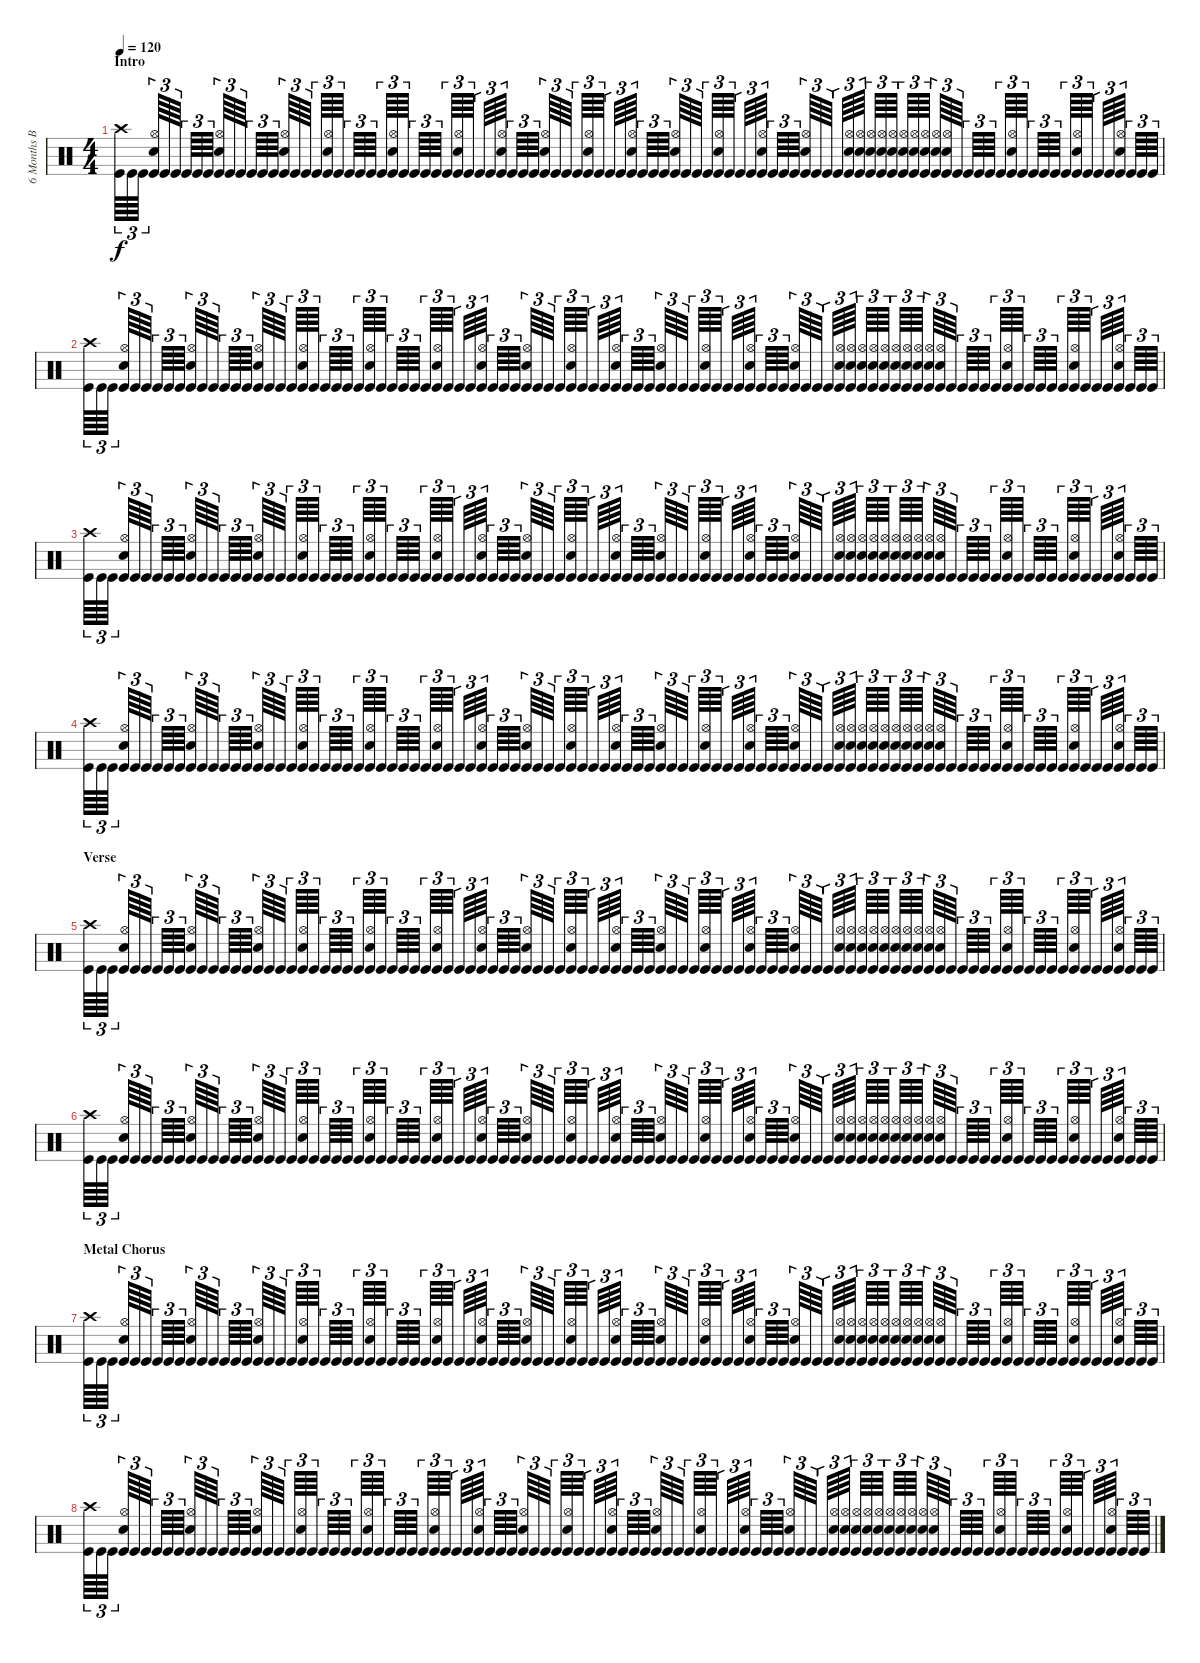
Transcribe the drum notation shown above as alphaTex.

\track ("6 Months Baby" "6 Months B") {instrument percussion}
\staff {score}
\articulation defaults
\ts (4 4)
\section ("" "Intro")
\tempo 120
\clef neutral
\ks c
("Crash high (hit)" "Kick (hit)").64{tu (3 2) dy f} "Kick (hit)".64{tu (3 2)} "Kick (hit)".64{tu (3 2)} ("Hi-Hat (open)" "Snare (hit) 2" "Kick (hit)").64{tu (3 2)} "Kick (hit)".64{tu (3 2)} "Kick (hit)".64{tu (3 2)} "Kick (hit)".64{tu (3 2)} "Kick (hit)".64{tu (3 2)} "Kick (hit)".64{tu (3 2)} ("Hi-Hat (open)" "Snare (hit) 2" "Kick (hit)").64{tu (3 2)} "Kick (hit)".64{tu (3 2)} "Kick (hit)".64{tu (3 2)} "Kick (hit)".64{tu (3 2)} "Kick (hit)".64{tu (3 2)} "Kick (hit)".64{tu (3 2)} ("Hi-Hat (open)" "Snare (hit) 2" "Kick (hit)").64{tu (3 2)} "Kick (hit)".64{tu (3 2)} "Kick (hit)".64{tu (3 2)} "Kick (hit)".64{tu (3 2)} ("Hi-Hat (open)" "Snare (hit) 2" "Kick (hit)").64{tu (3 2)} "Kick (hit)".64{tu (3 2)} "Kick (hit)".64{tu (3 2)} "Kick (hit)".64{tu (3 2)} "Kick (hit)".64{tu (3 2)} "Kick (hit)".64{tu (3 2)} ("Hi-Hat (open)" "Snare (hit) 2" "Kick (hit)").64{tu (3 2)} "Kick (hit)".64{tu (3 2)} "Kick (hit)".64{tu (3 2)} "Kick (hit)".64{tu (3 2)} "Kick (hit)".64{tu (3 2)} "Kick (hit)".64{tu (3 2)} ("Hi-Hat (open)" "Snare (hit) 2" "Kick (hit)").64{tu (3 2)} "Kick (hit)".64{tu (3 2)} "Kick (hit)".64{tu (3 2)} "Kick (hit)".64{tu (3 2)} ("Hi-Hat (open)" "Snare (hit) 2" "Kick (hit)").64{tu (3 2)} "Kick (hit)".64{tu (3 2)} "Kick (hit)".64{tu (3 2)} "Kick (hit)".64{tu (3 2)} ("Hi-Hat (open)" "Snare (hit) 2" "Kick (hit)").64{tu (3 2)} "Kick (hit)".64{tu (3 2)} "Kick (hit)".64{tu (3 2)} "Kick (hit)".64{tu (3 2)} ("Hi-Hat (open)" "Snare (hit) 2" "Kick (hit)").64{tu (3 2)} "Kick (hit)".64{tu (3 2)} "Kick (hit)".64{tu (3 2)} "Kick (hit)".64{tu (3 2)} ("Hi-Hat (open)" "Snare (hit) 2" "Kick (hit)").64{tu (3 2)} "Kick (hit)".64{tu (3 2)} "Kick (hit)".64{tu (3 2)} "Kick (hit)".64{tu (3 2)} ("Hi-Hat (open)" "Snare (hit) 2" "Kick (hit)").64{tu (3 2)} "Kick (hit)".64{tu (3 2)} "Kick (hit)".64{tu (3 2)} "Kick (hit)".64{tu (3 2)} ("Hi-Hat (open)" "Snare (hit) 2" "Kick (hit)").64{tu (3 2)} "Kick (hit)".64{tu (3 2)} "Kick (hit)".64{tu (3 2)} "Kick (hit)".64{tu (3 2)} ("Hi-Hat (open)" "Snare (hit) 2" "Kick (hit)").64{tu (3 2)} "Kick (hit)".64{tu (3 2)} "Kick (hit)".64{tu (3 2)} "Kick (hit)".64{tu (3 2)} ("Hi-Hat (open)" "Snare (hit) 2" "Kick (hit)").64{tu (3 2)} "Kick (hit)".64{tu (3 2)} "Kick (hit)".64{tu (3 2)} "Kick (hit)".64{tu (3 2)} ("Hi-Hat (open)" "Snare (hit) 2" "Kick (hit)").64{tu (3 2)} ("Hi-Hat (open)" "Snare (hit) 2" "Kick (hit)").64{tu (3 2)} ("Hi-Hat (open)" "Snare (hit) 2" "Kick (hit)").64{tu (3 2)} ("Hi-Hat (open)" "Snare (hit) 2" "Kick (hit)").64{tu (3 2)} ("Hi-Hat (open)" "Snare (hit) 2" "Kick (hit)").64{tu (3 2)} ("Hi-Hat (open)" "Snare (hit) 2" "Kick (hit)").64{tu (3 2)} ("Hi-Hat (open)" "Snare (hit) 2" "Kick (hit)").64{tu (3 2)} ("Hi-Hat (open)" "Snare (hit) 2" "Kick (hit)").64{tu (3 2)} ("Hi-Hat (open)" "Snare (hit) 2" "Kick (hit)").64{tu (3 2)} ("Hi-Hat (open)" "Snare (hit) 2" "Kick (hit)").64{tu (3 2)} "Kick (hit)".64{tu (3 2)} "Kick (hit)".64{tu (3 2)} "Kick (hit)".64{tu (3 2)} "Kick (hit)".64{tu (3 2)} "Kick (hit)".64{tu (3 2)} ("Hi-Hat (open)" "Snare (hit) 2" "Kick (hit)").64{tu (3 2)} "Kick (hit)".64{tu (3 2)} "Kick (hit)".64{tu (3 2)} "Kick (hit)".64{tu (3 2)} "Kick (hit)".64{tu (3 2)} "Kick (hit)".64{tu (3 2)} ("Hi-Hat (open)" "Snare (hit) 2" "Kick (hit)").64{tu (3 2)} "Kick (hit)".64{tu (3 2)} "Kick (hit)".64{tu (3 2)} "Kick (hit)".64{tu (3 2)} ("Hi-Hat (open)" "Snare (hit) 2" "Kick (hit)").64{tu (3 2)} "Kick (hit)".64{tu (3 2)} "Kick (hit)".64{tu (3 2)} "Kick (hit)".64{tu (3 2)} |
("Crash high (hit)" "Kick (hit)").64{tu (3 2)} "Kick (hit)".64{tu (3 2)} "Kick (hit)".64{tu (3 2)} ("Hi-Hat (open)" "Snare (hit) 2" "Kick (hit)").64{tu (3 2)} "Kick (hit)".64{tu (3 2)} "Kick (hit)".64{tu (3 2)} "Kick (hit)".64{tu (3 2)} "Kick (hit)".64{tu (3 2)} "Kick (hit)".64{tu (3 2)} ("Hi-Hat (open)" "Snare (hit) 2" "Kick (hit)").64{tu (3 2)} "Kick (hit)".64{tu (3 2)} "Kick (hit)".64{tu (3 2)} "Kick (hit)".64{tu (3 2)} "Kick (hit)".64{tu (3 2)} "Kick (hit)".64{tu (3 2)} ("Hi-Hat (open)" "Snare (hit) 2" "Kick (hit)").64{tu (3 2)} "Kick (hit)".64{tu (3 2)} "Kick (hit)".64{tu (3 2)} "Kick (hit)".64{tu (3 2)} ("Hi-Hat (open)" "Snare (hit) 2" "Kick (hit)").64{tu (3 2)} "Kick (hit)".64{tu (3 2)} "Kick (hit)".64{tu (3 2)} "Kick (hit)".64{tu (3 2)} "Kick (hit)".64{tu (3 2)} "Kick (hit)".64{tu (3 2)} ("Hi-Hat (open)" "Snare (hit) 2" "Kick (hit)").64{tu (3 2)} "Kick (hit)".64{tu (3 2)} "Kick (hit)".64{tu (3 2)} "Kick (hit)".64{tu (3 2)} "Kick (hit)".64{tu (3 2)} "Kick (hit)".64{tu (3 2)} ("Hi-Hat (open)" "Snare (hit) 2" "Kick (hit)").64{tu (3 2)} "Kick (hit)".64{tu (3 2)} "Kick (hit)".64{tu (3 2)} "Kick (hit)".64{tu (3 2)} ("Hi-Hat (open)" "Snare (hit) 2" "Kick (hit)").64{tu (3 2)} "Kick (hit)".64{tu (3 2)} "Kick (hit)".64{tu (3 2)} "Kick (hit)".64{tu (3 2)} ("Hi-Hat (open)" "Snare (hit) 2" "Kick (hit)").64{tu (3 2)} "Kick (hit)".64{tu (3 2)} "Kick (hit)".64{tu (3 2)} "Kick (hit)".64{tu (3 2)} ("Hi-Hat (open)" "Snare (hit) 2" "Kick (hit)").64{tu (3 2)} "Kick (hit)".64{tu (3 2)} "Kick (hit)".64{tu (3 2)} "Kick (hit)".64{tu (3 2)} ("Hi-Hat (open)" "Snare (hit) 2" "Kick (hit)").64{tu (3 2)} "Kick (hit)".64{tu (3 2)} "Kick (hit)".64{tu (3 2)} "Kick (hit)".64{tu (3 2)} ("Hi-Hat (open)" "Snare (hit) 2" "Kick (hit)").64{tu (3 2)} "Kick (hit)".64{tu (3 2)} "Kick (hit)".64{tu (3 2)} "Kick (hit)".64{tu (3 2)} ("Hi-Hat (open)" "Snare (hit) 2" "Kick (hit)").64{tu (3 2)} "Kick (hit)".64{tu (3 2)} "Kick (hit)".64{tu (3 2)} "Kick (hit)".64{tu (3 2)} ("Hi-Hat (open)" "Snare (hit) 2" "Kick (hit)").64{tu (3 2)} "Kick (hit)".64{tu (3 2)} "Kick (hit)".64{tu (3 2)} "Kick (hit)".64{tu (3 2)} ("Hi-Hat (open)" "Snare (hit) 2" "Kick (hit)").64{tu (3 2)} "Kick (hit)".64{tu (3 2)} "Kick (hit)".64{tu (3 2)} "Kick (hit)".64{tu (3 2)} ("Hi-Hat (open)" "Snare (hit) 2" "Kick (hit)").64{tu (3 2)} ("Hi-Hat (open)" "Snare (hit) 2" "Kick (hit)").64{tu (3 2)} ("Hi-Hat (open)" "Snare (hit) 2" "Kick (hit)").64{tu (3 2)} ("Hi-Hat (open)" "Snare (hit) 2" "Kick (hit)").64{tu (3 2)} ("Hi-Hat (open)" "Snare (hit) 2" "Kick (hit)").64{tu (3 2)} ("Hi-Hat (open)" "Snare (hit) 2" "Kick (hit)").64{tu (3 2)} ("Hi-Hat (open)" "Snare (hit) 2" "Kick (hit)").64{tu (3 2)} ("Hi-Hat (open)" "Snare (hit) 2" "Kick (hit)").64{tu (3 2)} ("Hi-Hat (open)" "Snare (hit) 2" "Kick (hit)").64{tu (3 2)} ("Hi-Hat (open)" "Snare (hit) 2" "Kick (hit)").64{tu (3 2)} "Kick (hit)".64{tu (3 2)} "Kick (hit)".64{tu (3 2)} "Kick (hit)".64{tu (3 2)} "Kick (hit)".64{tu (3 2)} "Kick (hit)".64{tu (3 2)} ("Hi-Hat (open)" "Snare (hit) 2" "Kick (hit)").64{tu (3 2)} "Kick (hit)".64{tu (3 2)} "Kick (hit)".64{tu (3 2)} "Kick (hit)".64{tu (3 2)} "Kick (hit)".64{tu (3 2)} "Kick (hit)".64{tu (3 2)} ("Hi-Hat (open)" "Snare (hit) 2" "Kick (hit)").64{tu (3 2)} "Kick (hit)".64{tu (3 2)} "Kick (hit)".64{tu (3 2)} "Kick (hit)".64{tu (3 2)} ("Hi-Hat (open)" "Snare (hit) 2" "Kick (hit)").64{tu (3 2)} "Kick (hit)".64{tu (3 2)} "Kick (hit)".64{tu (3 2)} "Kick (hit)".64{tu (3 2)} |
("Crash high (hit)" "Kick (hit)").64{tu (3 2)} "Kick (hit)".64{tu (3 2)} "Kick (hit)".64{tu (3 2)} ("Hi-Hat (open)" "Snare (hit) 2" "Kick (hit)").64{tu (3 2)} "Kick (hit)".64{tu (3 2)} "Kick (hit)".64{tu (3 2)} "Kick (hit)".64{tu (3 2)} "Kick (hit)".64{tu (3 2)} "Kick (hit)".64{tu (3 2)} ("Hi-Hat (open)" "Snare (hit) 2" "Kick (hit)").64{tu (3 2)} "Kick (hit)".64{tu (3 2)} "Kick (hit)".64{tu (3 2)} "Kick (hit)".64{tu (3 2)} "Kick (hit)".64{tu (3 2)} "Kick (hit)".64{tu (3 2)} ("Hi-Hat (open)" "Snare (hit) 2" "Kick (hit)").64{tu (3 2)} "Kick (hit)".64{tu (3 2)} "Kick (hit)".64{tu (3 2)} "Kick (hit)".64{tu (3 2)} ("Hi-Hat (open)" "Snare (hit) 2" "Kick (hit)").64{tu (3 2)} "Kick (hit)".64{tu (3 2)} "Kick (hit)".64{tu (3 2)} "Kick (hit)".64{tu (3 2)} "Kick (hit)".64{tu (3 2)} "Kick (hit)".64{tu (3 2)} ("Hi-Hat (open)" "Snare (hit) 2" "Kick (hit)").64{tu (3 2)} "Kick (hit)".64{tu (3 2)} "Kick (hit)".64{tu (3 2)} "Kick (hit)".64{tu (3 2)} "Kick (hit)".64{tu (3 2)} "Kick (hit)".64{tu (3 2)} ("Hi-Hat (open)" "Snare (hit) 2" "Kick (hit)").64{tu (3 2)} "Kick (hit)".64{tu (3 2)} "Kick (hit)".64{tu (3 2)} "Kick (hit)".64{tu (3 2)} ("Hi-Hat (open)" "Snare (hit) 2" "Kick (hit)").64{tu (3 2)} "Kick (hit)".64{tu (3 2)} "Kick (hit)".64{tu (3 2)} "Kick (hit)".64{tu (3 2)} ("Hi-Hat (open)" "Snare (hit) 2" "Kick (hit)").64{tu (3 2)} "Kick (hit)".64{tu (3 2)} "Kick (hit)".64{tu (3 2)} "Kick (hit)".64{tu (3 2)} ("Hi-Hat (open)" "Snare (hit) 2" "Kick (hit)").64{tu (3 2)} "Kick (hit)".64{tu (3 2)} "Kick (hit)".64{tu (3 2)} "Kick (hit)".64{tu (3 2)} ("Hi-Hat (open)" "Snare (hit) 2" "Kick (hit)").64{tu (3 2)} "Kick (hit)".64{tu (3 2)} "Kick (hit)".64{tu (3 2)} "Kick (hit)".64{tu (3 2)} ("Hi-Hat (open)" "Snare (hit) 2" "Kick (hit)").64{tu (3 2)} "Kick (hit)".64{tu (3 2)} "Kick (hit)".64{tu (3 2)} "Kick (hit)".64{tu (3 2)} ("Hi-Hat (open)" "Snare (hit) 2" "Kick (hit)").64{tu (3 2)} "Kick (hit)".64{tu (3 2)} "Kick (hit)".64{tu (3 2)} "Kick (hit)".64{tu (3 2)} ("Hi-Hat (open)" "Snare (hit) 2" "Kick (hit)").64{tu (3 2)} "Kick (hit)".64{tu (3 2)} "Kick (hit)".64{tu (3 2)} "Kick (hit)".64{tu (3 2)} ("Hi-Hat (open)" "Snare (hit) 2" "Kick (hit)").64{tu (3 2)} "Kick (hit)".64{tu (3 2)} "Kick (hit)".64{tu (3 2)} "Kick (hit)".64{tu (3 2)} ("Hi-Hat (open)" "Snare (hit) 2" "Kick (hit)").64{tu (3 2)} ("Hi-Hat (open)" "Snare (hit) 2" "Kick (hit)").64{tu (3 2)} ("Hi-Hat (open)" "Snare (hit) 2" "Kick (hit)").64{tu (3 2)} ("Hi-Hat (open)" "Snare (hit) 2" "Kick (hit)").64{tu (3 2)} ("Hi-Hat (open)" "Snare (hit) 2" "Kick (hit)").64{tu (3 2)} ("Hi-Hat (open)" "Snare (hit) 2" "Kick (hit)").64{tu (3 2)} ("Hi-Hat (open)" "Snare (hit) 2" "Kick (hit)").64{tu (3 2)} ("Hi-Hat (open)" "Snare (hit) 2" "Kick (hit)").64{tu (3 2)} ("Hi-Hat (open)" "Snare (hit) 2" "Kick (hit)").64{tu (3 2)} ("Hi-Hat (open)" "Snare (hit) 2" "Kick (hit)").64{tu (3 2)} "Kick (hit)".64{tu (3 2)} "Kick (hit)".64{tu (3 2)} "Kick (hit)".64{tu (3 2)} "Kick (hit)".64{tu (3 2)} "Kick (hit)".64{tu (3 2)} ("Hi-Hat (open)" "Snare (hit) 2" "Kick (hit)").64{tu (3 2)} "Kick (hit)".64{tu (3 2)} "Kick (hit)".64{tu (3 2)} "Kick (hit)".64{tu (3 2)} "Kick (hit)".64{tu (3 2)} "Kick (hit)".64{tu (3 2)} ("Hi-Hat (open)" "Snare (hit) 2" "Kick (hit)").64{tu (3 2)} "Kick (hit)".64{tu (3 2)} "Kick (hit)".64{tu (3 2)} "Kick (hit)".64{tu (3 2)} ("Hi-Hat (open)" "Snare (hit) 2" "Kick (hit)").64{tu (3 2)} "Kick (hit)".64{tu (3 2)} "Kick (hit)".64{tu (3 2)} "Kick (hit)".64{tu (3 2)} |
("Crash high (hit)" "Kick (hit)").64{tu (3 2)} "Kick (hit)".64{tu (3 2)} "Kick (hit)".64{tu (3 2)} ("Hi-Hat (open)" "Snare (hit) 2" "Kick (hit)").64{tu (3 2)} "Kick (hit)".64{tu (3 2)} "Kick (hit)".64{tu (3 2)} "Kick (hit)".64{tu (3 2)} "Kick (hit)".64{tu (3 2)} "Kick (hit)".64{tu (3 2)} ("Hi-Hat (open)" "Snare (hit) 2" "Kick (hit)").64{tu (3 2)} "Kick (hit)".64{tu (3 2)} "Kick (hit)".64{tu (3 2)} "Kick (hit)".64{tu (3 2)} "Kick (hit)".64{tu (3 2)} "Kick (hit)".64{tu (3 2)} ("Hi-Hat (open)" "Snare (hit) 2" "Kick (hit)").64{tu (3 2)} "Kick (hit)".64{tu (3 2)} "Kick (hit)".64{tu (3 2)} "Kick (hit)".64{tu (3 2)} ("Hi-Hat (open)" "Snare (hit) 2" "Kick (hit)").64{tu (3 2)} "Kick (hit)".64{tu (3 2)} "Kick (hit)".64{tu (3 2)} "Kick (hit)".64{tu (3 2)} "Kick (hit)".64{tu (3 2)} "Kick (hit)".64{tu (3 2)} ("Hi-Hat (open)" "Snare (hit) 2" "Kick (hit)").64{tu (3 2)} "Kick (hit)".64{tu (3 2)} "Kick (hit)".64{tu (3 2)} "Kick (hit)".64{tu (3 2)} "Kick (hit)".64{tu (3 2)} "Kick (hit)".64{tu (3 2)} ("Hi-Hat (open)" "Snare (hit) 2" "Kick (hit)").64{tu (3 2)} "Kick (hit)".64{tu (3 2)} "Kick (hit)".64{tu (3 2)} "Kick (hit)".64{tu (3 2)} ("Hi-Hat (open)" "Snare (hit) 2" "Kick (hit)").64{tu (3 2)} "Kick (hit)".64{tu (3 2)} "Kick (hit)".64{tu (3 2)} "Kick (hit)".64{tu (3 2)} ("Hi-Hat (open)" "Snare (hit) 2" "Kick (hit)").64{tu (3 2)} "Kick (hit)".64{tu (3 2)} "Kick (hit)".64{tu (3 2)} "Kick (hit)".64{tu (3 2)} ("Hi-Hat (open)" "Snare (hit) 2" "Kick (hit)").64{tu (3 2)} "Kick (hit)".64{tu (3 2)} "Kick (hit)".64{tu (3 2)} "Kick (hit)".64{tu (3 2)} ("Hi-Hat (open)" "Snare (hit) 2" "Kick (hit)").64{tu (3 2)} "Kick (hit)".64{tu (3 2)} "Kick (hit)".64{tu (3 2)} "Kick (hit)".64{tu (3 2)} ("Hi-Hat (open)" "Snare (hit) 2" "Kick (hit)").64{tu (3 2)} "Kick (hit)".64{tu (3 2)} "Kick (hit)".64{tu (3 2)} "Kick (hit)".64{tu (3 2)} ("Hi-Hat (open)" "Snare (hit) 2" "Kick (hit)").64{tu (3 2)} "Kick (hit)".64{tu (3 2)} "Kick (hit)".64{tu (3 2)} "Kick (hit)".64{tu (3 2)} ("Hi-Hat (open)" "Snare (hit) 2" "Kick (hit)").64{tu (3 2)} "Kick (hit)".64{tu (3 2)} "Kick (hit)".64{tu (3 2)} "Kick (hit)".64{tu (3 2)} ("Hi-Hat (open)" "Snare (hit) 2" "Kick (hit)").64{tu (3 2)} "Kick (hit)".64{tu (3 2)} "Kick (hit)".64{tu (3 2)} "Kick (hit)".64{tu (3 2)} ("Hi-Hat (open)" "Snare (hit) 2" "Kick (hit)").64{tu (3 2)} ("Hi-Hat (open)" "Snare (hit) 2" "Kick (hit)").64{tu (3 2)} ("Hi-Hat (open)" "Snare (hit) 2" "Kick (hit)").64{tu (3 2)} ("Hi-Hat (open)" "Snare (hit) 2" "Kick (hit)").64{tu (3 2)} ("Hi-Hat (open)" "Snare (hit) 2" "Kick (hit)").64{tu (3 2)} ("Hi-Hat (open)" "Snare (hit) 2" "Kick (hit)").64{tu (3 2)} ("Hi-Hat (open)" "Snare (hit) 2" "Kick (hit)").64{tu (3 2)} ("Hi-Hat (open)" "Snare (hit) 2" "Kick (hit)").64{tu (3 2)} ("Hi-Hat (open)" "Snare (hit) 2" "Kick (hit)").64{tu (3 2)} ("Hi-Hat (open)" "Snare (hit) 2" "Kick (hit)").64{tu (3 2)} "Kick (hit)".64{tu (3 2)} "Kick (hit)".64{tu (3 2)} "Kick (hit)".64{tu (3 2)} "Kick (hit)".64{tu (3 2)} "Kick (hit)".64{tu (3 2)} ("Hi-Hat (open)" "Snare (hit) 2" "Kick (hit)").64{tu (3 2)} "Kick (hit)".64{tu (3 2)} "Kick (hit)".64{tu (3 2)} "Kick (hit)".64{tu (3 2)} "Kick (hit)".64{tu (3 2)} "Kick (hit)".64{tu (3 2)} ("Hi-Hat (open)" "Snare (hit) 2" "Kick (hit)").64{tu (3 2)} "Kick (hit)".64{tu (3 2)} "Kick (hit)".64{tu (3 2)} "Kick (hit)".64{tu (3 2)} ("Hi-Hat (open)" "Snare (hit) 2" "Kick (hit)").64{tu (3 2)} "Kick (hit)".64{tu (3 2)} "Kick (hit)".64{tu (3 2)} "Kick (hit)".64{tu (3 2)} |
\section ("" "Verse")
("Crash high (hit)" "Kick (hit)").64{tu (3 2)} "Kick (hit)".64{tu (3 2)} "Kick (hit)".64{tu (3 2)} ("Hi-Hat (open)" "Snare (hit) 2" "Kick (hit)").64{tu (3 2)} "Kick (hit)".64{tu (3 2)} "Kick (hit)".64{tu (3 2)} "Kick (hit)".64{tu (3 2)} "Kick (hit)".64{tu (3 2)} "Kick (hit)".64{tu (3 2)} ("Hi-Hat (open)" "Snare (hit) 2" "Kick (hit)").64{tu (3 2)} "Kick (hit)".64{tu (3 2)} "Kick (hit)".64{tu (3 2)} "Kick (hit)".64{tu (3 2)} "Kick (hit)".64{tu (3 2)} "Kick (hit)".64{tu (3 2)} ("Hi-Hat (open)" "Snare (hit) 2" "Kick (hit)").64{tu (3 2)} "Kick (hit)".64{tu (3 2)} "Kick (hit)".64{tu (3 2)} "Kick (hit)".64{tu (3 2)} ("Hi-Hat (open)" "Snare (hit) 2" "Kick (hit)").64{tu (3 2)} "Kick (hit)".64{tu (3 2)} "Kick (hit)".64{tu (3 2)} "Kick (hit)".64{tu (3 2)} "Kick (hit)".64{tu (3 2)} "Kick (hit)".64{tu (3 2)} ("Hi-Hat (open)" "Snare (hit) 2" "Kick (hit)").64{tu (3 2)} "Kick (hit)".64{tu (3 2)} "Kick (hit)".64{tu (3 2)} "Kick (hit)".64{tu (3 2)} "Kick (hit)".64{tu (3 2)} "Kick (hit)".64{tu (3 2)} ("Hi-Hat (open)" "Snare (hit) 2" "Kick (hit)").64{tu (3 2)} "Kick (hit)".64{tu (3 2)} "Kick (hit)".64{tu (3 2)} "Kick (hit)".64{tu (3 2)} ("Hi-Hat (open)" "Snare (hit) 2" "Kick (hit)").64{tu (3 2)} "Kick (hit)".64{tu (3 2)} "Kick (hit)".64{tu (3 2)} "Kick (hit)".64{tu (3 2)} ("Hi-Hat (open)" "Snare (hit) 2" "Kick (hit)").64{tu (3 2)} "Kick (hit)".64{tu (3 2)} "Kick (hit)".64{tu (3 2)} "Kick (hit)".64{tu (3 2)} ("Hi-Hat (open)" "Snare (hit) 2" "Kick (hit)").64{tu (3 2)} "Kick (hit)".64{tu (3 2)} "Kick (hit)".64{tu (3 2)} "Kick (hit)".64{tu (3 2)} ("Hi-Hat (open)" "Snare (hit) 2" "Kick (hit)").64{tu (3 2)} "Kick (hit)".64{tu (3 2)} "Kick (hit)".64{tu (3 2)} "Kick (hit)".64{tu (3 2)} ("Hi-Hat (open)" "Snare (hit) 2" "Kick (hit)").64{tu (3 2)} "Kick (hit)".64{tu (3 2)} "Kick (hit)".64{tu (3 2)} "Kick (hit)".64{tu (3 2)} ("Hi-Hat (open)" "Snare (hit) 2" "Kick (hit)").64{tu (3 2)} "Kick (hit)".64{tu (3 2)} "Kick (hit)".64{tu (3 2)} "Kick (hit)".64{tu (3 2)} ("Hi-Hat (open)" "Snare (hit) 2" "Kick (hit)").64{tu (3 2)} "Kick (hit)".64{tu (3 2)} "Kick (hit)".64{tu (3 2)} "Kick (hit)".64{tu (3 2)} ("Hi-Hat (open)" "Snare (hit) 2" "Kick (hit)").64{tu (3 2)} "Kick (hit)".64{tu (3 2)} "Kick (hit)".64{tu (3 2)} "Kick (hit)".64{tu (3 2)} ("Hi-Hat (open)" "Snare (hit) 2" "Kick (hit)").64{tu (3 2)} ("Hi-Hat (open)" "Snare (hit) 2" "Kick (hit)").64{tu (3 2)} ("Hi-Hat (open)" "Snare (hit) 2" "Kick (hit)").64{tu (3 2)} ("Hi-Hat (open)" "Snare (hit) 2" "Kick (hit)").64{tu (3 2)} ("Hi-Hat (open)" "Snare (hit) 2" "Kick (hit)").64{tu (3 2)} ("Hi-Hat (open)" "Snare (hit) 2" "Kick (hit)").64{tu (3 2)} ("Hi-Hat (open)" "Snare (hit) 2" "Kick (hit)").64{tu (3 2)} ("Hi-Hat (open)" "Snare (hit) 2" "Kick (hit)").64{tu (3 2)} ("Hi-Hat (open)" "Snare (hit) 2" "Kick (hit)").64{tu (3 2)} ("Hi-Hat (open)" "Snare (hit) 2" "Kick (hit)").64{tu (3 2)} "Kick (hit)".64{tu (3 2)} "Kick (hit)".64{tu (3 2)} "Kick (hit)".64{tu (3 2)} "Kick (hit)".64{tu (3 2)} "Kick (hit)".64{tu (3 2)} ("Hi-Hat (open)" "Snare (hit) 2" "Kick (hit)").64{tu (3 2)} "Kick (hit)".64{tu (3 2)} "Kick (hit)".64{tu (3 2)} "Kick (hit)".64{tu (3 2)} "Kick (hit)".64{tu (3 2)} "Kick (hit)".64{tu (3 2)} ("Hi-Hat (open)" "Snare (hit) 2" "Kick (hit)").64{tu (3 2)} "Kick (hit)".64{tu (3 2)} "Kick (hit)".64{tu (3 2)} "Kick (hit)".64{tu (3 2)} ("Hi-Hat (open)" "Snare (hit) 2" "Kick (hit)").64{tu (3 2)} "Kick (hit)".64{tu (3 2)} "Kick (hit)".64{tu (3 2)} "Kick (hit)".64{tu (3 2)} |
("Crash high (hit)" "Kick (hit)").64{tu (3 2)} "Kick (hit)".64{tu (3 2)} "Kick (hit)".64{tu (3 2)} ("Hi-Hat (open)" "Snare (hit) 2" "Kick (hit)").64{tu (3 2)} "Kick (hit)".64{tu (3 2)} "Kick (hit)".64{tu (3 2)} "Kick (hit)".64{tu (3 2)} "Kick (hit)".64{tu (3 2)} "Kick (hit)".64{tu (3 2)} ("Hi-Hat (open)" "Snare (hit) 2" "Kick (hit)").64{tu (3 2)} "Kick (hit)".64{tu (3 2)} "Kick (hit)".64{tu (3 2)} "Kick (hit)".64{tu (3 2)} "Kick (hit)".64{tu (3 2)} "Kick (hit)".64{tu (3 2)} ("Hi-Hat (open)" "Snare (hit) 2" "Kick (hit)").64{tu (3 2)} "Kick (hit)".64{tu (3 2)} "Kick (hit)".64{tu (3 2)} "Kick (hit)".64{tu (3 2)} ("Hi-Hat (open)" "Snare (hit) 2" "Kick (hit)").64{tu (3 2)} "Kick (hit)".64{tu (3 2)} "Kick (hit)".64{tu (3 2)} "Kick (hit)".64{tu (3 2)} "Kick (hit)".64{tu (3 2)} "Kick (hit)".64{tu (3 2)} ("Hi-Hat (open)" "Snare (hit) 2" "Kick (hit)").64{tu (3 2)} "Kick (hit)".64{tu (3 2)} "Kick (hit)".64{tu (3 2)} "Kick (hit)".64{tu (3 2)} "Kick (hit)".64{tu (3 2)} "Kick (hit)".64{tu (3 2)} ("Hi-Hat (open)" "Snare (hit) 2" "Kick (hit)").64{tu (3 2)} "Kick (hit)".64{tu (3 2)} "Kick (hit)".64{tu (3 2)} "Kick (hit)".64{tu (3 2)} ("Hi-Hat (open)" "Snare (hit) 2" "Kick (hit)").64{tu (3 2)} "Kick (hit)".64{tu (3 2)} "Kick (hit)".64{tu (3 2)} "Kick (hit)".64{tu (3 2)} ("Hi-Hat (open)" "Snare (hit) 2" "Kick (hit)").64{tu (3 2)} "Kick (hit)".64{tu (3 2)} "Kick (hit)".64{tu (3 2)} "Kick (hit)".64{tu (3 2)} ("Hi-Hat (open)" "Snare (hit) 2" "Kick (hit)").64{tu (3 2)} "Kick (hit)".64{tu (3 2)} "Kick (hit)".64{tu (3 2)} "Kick (hit)".64{tu (3 2)} ("Hi-Hat (open)" "Snare (hit) 2" "Kick (hit)").64{tu (3 2)} "Kick (hit)".64{tu (3 2)} "Kick (hit)".64{tu (3 2)} "Kick (hit)".64{tu (3 2)} ("Hi-Hat (open)" "Snare (hit) 2" "Kick (hit)").64{tu (3 2)} "Kick (hit)".64{tu (3 2)} "Kick (hit)".64{tu (3 2)} "Kick (hit)".64{tu (3 2)} ("Hi-Hat (open)" "Snare (hit) 2" "Kick (hit)").64{tu (3 2)} "Kick (hit)".64{tu (3 2)} "Kick (hit)".64{tu (3 2)} "Kick (hit)".64{tu (3 2)} ("Hi-Hat (open)" "Snare (hit) 2" "Kick (hit)").64{tu (3 2)} "Kick (hit)".64{tu (3 2)} "Kick (hit)".64{tu (3 2)} "Kick (hit)".64{tu (3 2)} ("Hi-Hat (open)" "Snare (hit) 2" "Kick (hit)").64{tu (3 2)} "Kick (hit)".64{tu (3 2)} "Kick (hit)".64{tu (3 2)} "Kick (hit)".64{tu (3 2)} ("Hi-Hat (open)" "Snare (hit) 2" "Kick (hit)").64{tu (3 2)} ("Hi-Hat (open)" "Snare (hit) 2" "Kick (hit)").64{tu (3 2)} ("Hi-Hat (open)" "Snare (hit) 2" "Kick (hit)").64{tu (3 2)} ("Hi-Hat (open)" "Snare (hit) 2" "Kick (hit)").64{tu (3 2)} ("Hi-Hat (open)" "Snare (hit) 2" "Kick (hit)").64{tu (3 2)} ("Hi-Hat (open)" "Snare (hit) 2" "Kick (hit)").64{tu (3 2)} ("Hi-Hat (open)" "Snare (hit) 2" "Kick (hit)").64{tu (3 2)} ("Hi-Hat (open)" "Snare (hit) 2" "Kick (hit)").64{tu (3 2)} ("Hi-Hat (open)" "Snare (hit) 2" "Kick (hit)").64{tu (3 2)} ("Hi-Hat (open)" "Snare (hit) 2" "Kick (hit)").64{tu (3 2)} "Kick (hit)".64{tu (3 2)} "Kick (hit)".64{tu (3 2)} "Kick (hit)".64{tu (3 2)} "Kick (hit)".64{tu (3 2)} "Kick (hit)".64{tu (3 2)} ("Hi-Hat (open)" "Snare (hit) 2" "Kick (hit)").64{tu (3 2)} "Kick (hit)".64{tu (3 2)} "Kick (hit)".64{tu (3 2)} "Kick (hit)".64{tu (3 2)} "Kick (hit)".64{tu (3 2)} "Kick (hit)".64{tu (3 2)} ("Hi-Hat (open)" "Snare (hit) 2" "Kick (hit)").64{tu (3 2)} "Kick (hit)".64{tu (3 2)} "Kick (hit)".64{tu (3 2)} "Kick (hit)".64{tu (3 2)} ("Hi-Hat (open)" "Snare (hit) 2" "Kick (hit)").64{tu (3 2)} "Kick (hit)".64{tu (3 2)} "Kick (hit)".64{tu (3 2)} "Kick (hit)".64{tu (3 2)} |
\section ("" "Metal Chorus")
("Crash high (hit)" "Kick (hit)").64{tu (3 2)} "Kick (hit)".64{tu (3 2)} "Kick (hit)".64{tu (3 2)} ("Hi-Hat (open)" "Snare (hit) 2" "Kick (hit)").64{tu (3 2)} "Kick (hit)".64{tu (3 2)} "Kick (hit)".64{tu (3 2)} "Kick (hit)".64{tu (3 2)} "Kick (hit)".64{tu (3 2)} "Kick (hit)".64{tu (3 2)} ("Hi-Hat (open)" "Snare (hit) 2" "Kick (hit)").64{tu (3 2)} "Kick (hit)".64{tu (3 2)} "Kick (hit)".64{tu (3 2)} "Kick (hit)".64{tu (3 2)} "Kick (hit)".64{tu (3 2)} "Kick (hit)".64{tu (3 2)} ("Hi-Hat (open)" "Snare (hit) 2" "Kick (hit)").64{tu (3 2)} "Kick (hit)".64{tu (3 2)} "Kick (hit)".64{tu (3 2)} "Kick (hit)".64{tu (3 2)} ("Hi-Hat (open)" "Snare (hit) 2" "Kick (hit)").64{tu (3 2)} "Kick (hit)".64{tu (3 2)} "Kick (hit)".64{tu (3 2)} "Kick (hit)".64{tu (3 2)} "Kick (hit)".64{tu (3 2)} "Kick (hit)".64{tu (3 2)} ("Hi-Hat (open)" "Snare (hit) 2" "Kick (hit)").64{tu (3 2)} "Kick (hit)".64{tu (3 2)} "Kick (hit)".64{tu (3 2)} "Kick (hit)".64{tu (3 2)} "Kick (hit)".64{tu (3 2)} "Kick (hit)".64{tu (3 2)} ("Hi-Hat (open)" "Snare (hit) 2" "Kick (hit)").64{tu (3 2)} "Kick (hit)".64{tu (3 2)} "Kick (hit)".64{tu (3 2)} "Kick (hit)".64{tu (3 2)} ("Hi-Hat (open)" "Snare (hit) 2" "Kick (hit)").64{tu (3 2)} "Kick (hit)".64{tu (3 2)} "Kick (hit)".64{tu (3 2)} "Kick (hit)".64{tu (3 2)} ("Hi-Hat (open)" "Snare (hit) 2" "Kick (hit)").64{tu (3 2)} "Kick (hit)".64{tu (3 2)} "Kick (hit)".64{tu (3 2)} "Kick (hit)".64{tu (3 2)} ("Hi-Hat (open)" "Snare (hit) 2" "Kick (hit)").64{tu (3 2)} "Kick (hit)".64{tu (3 2)} "Kick (hit)".64{tu (3 2)} "Kick (hit)".64{tu (3 2)} ("Hi-Hat (open)" "Snare (hit) 2" "Kick (hit)").64{tu (3 2)} "Kick (hit)".64{tu (3 2)} "Kick (hit)".64{tu (3 2)} "Kick (hit)".64{tu (3 2)} ("Hi-Hat (open)" "Snare (hit) 2" "Kick (hit)").64{tu (3 2)} "Kick (hit)".64{tu (3 2)} "Kick (hit)".64{tu (3 2)} "Kick (hit)".64{tu (3 2)} ("Hi-Hat (open)" "Snare (hit) 2" "Kick (hit)").64{tu (3 2)} "Kick (hit)".64{tu (3 2)} "Kick (hit)".64{tu (3 2)} "Kick (hit)".64{tu (3 2)} ("Hi-Hat (open)" "Snare (hit) 2" "Kick (hit)").64{tu (3 2)} "Kick (hit)".64{tu (3 2)} "Kick (hit)".64{tu (3 2)} "Kick (hit)".64{tu (3 2)} ("Hi-Hat (open)" "Snare (hit) 2" "Kick (hit)").64{tu (3 2)} "Kick (hit)".64{tu (3 2)} "Kick (hit)".64{tu (3 2)} "Kick (hit)".64{tu (3 2)} ("Hi-Hat (open)" "Snare (hit) 2" "Kick (hit)").64{tu (3 2)} ("Hi-Hat (open)" "Snare (hit) 2" "Kick (hit)").64{tu (3 2)} ("Hi-Hat (open)" "Snare (hit) 2" "Kick (hit)").64{tu (3 2)} ("Hi-Hat (open)" "Snare (hit) 2" "Kick (hit)").64{tu (3 2)} ("Hi-Hat (open)" "Snare (hit) 2" "Kick (hit)").64{tu (3 2)} ("Hi-Hat (open)" "Snare (hit) 2" "Kick (hit)").64{tu (3 2)} ("Hi-Hat (open)" "Snare (hit) 2" "Kick (hit)").64{tu (3 2)} ("Hi-Hat (open)" "Snare (hit) 2" "Kick (hit)").64{tu (3 2)} ("Hi-Hat (open)" "Snare (hit) 2" "Kick (hit)").64{tu (3 2)} ("Hi-Hat (open)" "Snare (hit) 2" "Kick (hit)").64{tu (3 2)} "Kick (hit)".64{tu (3 2)} "Kick (hit)".64{tu (3 2)} "Kick (hit)".64{tu (3 2)} "Kick (hit)".64{tu (3 2)} "Kick (hit)".64{tu (3 2)} ("Hi-Hat (open)" "Snare (hit) 2" "Kick (hit)").64{tu (3 2)} "Kick (hit)".64{tu (3 2)} "Kick (hit)".64{tu (3 2)} "Kick (hit)".64{tu (3 2)} "Kick (hit)".64{tu (3 2)} "Kick (hit)".64{tu (3 2)} ("Hi-Hat (open)" "Snare (hit) 2" "Kick (hit)").64{tu (3 2)} "Kick (hit)".64{tu (3 2)} "Kick (hit)".64{tu (3 2)} "Kick (hit)".64{tu (3 2)} ("Hi-Hat (open)" "Snare (hit) 2" "Kick (hit)").64{tu (3 2)} "Kick (hit)".64{tu (3 2)} "Kick (hit)".64{tu (3 2)} "Kick (hit)".64{tu (3 2)} |
("Crash high (hit)" "Kick (hit)").64{tu (3 2)} "Kick (hit)".64{tu (3 2)} "Kick (hit)".64{tu (3 2)} ("Hi-Hat (open)" "Snare (hit) 2" "Kick (hit)").64{tu (3 2)} "Kick (hit)".64{tu (3 2)} "Kick (hit)".64{tu (3 2)} "Kick (hit)".64{tu (3 2)} "Kick (hit)".64{tu (3 2)} "Kick (hit)".64{tu (3 2)} ("Hi-Hat (open)" "Snare (hit) 2" "Kick (hit)").64{tu (3 2)} "Kick (hit)".64{tu (3 2)} "Kick (hit)".64{tu (3 2)} "Kick (hit)".64{tu (3 2)} "Kick (hit)".64{tu (3 2)} "Kick (hit)".64{tu (3 2)} ("Hi-Hat (open)" "Snare (hit) 2" "Kick (hit)").64{tu (3 2)} "Kick (hit)".64{tu (3 2)} "Kick (hit)".64{tu (3 2)} "Kick (hit)".64{tu (3 2)} ("Hi-Hat (open)" "Snare (hit) 2" "Kick (hit)").64{tu (3 2)} "Kick (hit)".64{tu (3 2)} "Kick (hit)".64{tu (3 2)} "Kick (hit)".64{tu (3 2)} "Kick (hit)".64{tu (3 2)} "Kick (hit)".64{tu (3 2)} ("Hi-Hat (open)" "Snare (hit) 2" "Kick (hit)").64{tu (3 2)} "Kick (hit)".64{tu (3 2)} "Kick (hit)".64{tu (3 2)} "Kick (hit)".64{tu (3 2)} "Kick (hit)".64{tu (3 2)} "Kick (hit)".64{tu (3 2)} ("Hi-Hat (open)" "Snare (hit) 2" "Kick (hit)").64{tu (3 2)} "Kick (hit)".64{tu (3 2)} "Kick (hit)".64{tu (3 2)} "Kick (hit)".64{tu (3 2)} ("Hi-Hat (open)" "Snare (hit) 2" "Kick (hit)").64{tu (3 2)} "Kick (hit)".64{tu (3 2)} "Kick (hit)".64{tu (3 2)} "Kick (hit)".64{tu (3 2)} ("Hi-Hat (open)" "Snare (hit) 2" "Kick (hit)").64{tu (3 2)} "Kick (hit)".64{tu (3 2)} "Kick (hit)".64{tu (3 2)} "Kick (hit)".64{tu (3 2)} ("Hi-Hat (open)" "Snare (hit) 2" "Kick (hit)").64{tu (3 2)} "Kick (hit)".64{tu (3 2)} "Kick (hit)".64{tu (3 2)} "Kick (hit)".64{tu (3 2)} ("Hi-Hat (open)" "Snare (hit) 2" "Kick (hit)").64{tu (3 2)} "Kick (hit)".64{tu (3 2)} "Kick (hit)".64{tu (3 2)} "Kick (hit)".64{tu (3 2)} ("Hi-Hat (open)" "Snare (hit) 2" "Kick (hit)").64{tu (3 2)} "Kick (hit)".64{tu (3 2)} "Kick (hit)".64{tu (3 2)} "Kick (hit)".64{tu (3 2)} ("Hi-Hat (open)" "Snare (hit) 2" "Kick (hit)").64{tu (3 2)} "Kick (hit)".64{tu (3 2)} "Kick (hit)".64{tu (3 2)} "Kick (hit)".64{tu (3 2)} ("Hi-Hat (open)" "Snare (hit) 2" "Kick (hit)").64{tu (3 2)} "Kick (hit)".64{tu (3 2)} "Kick (hit)".64{tu (3 2)} "Kick (hit)".64{tu (3 2)} ("Hi-Hat (open)" "Snare (hit) 2" "Kick (hit)").64{tu (3 2)} "Kick (hit)".64{tu (3 2)} "Kick (hit)".64{tu (3 2)} "Kick (hit)".64{tu (3 2)} ("Hi-Hat (open)" "Snare (hit) 2" "Kick (hit)").64{tu (3 2)} ("Hi-Hat (open)" "Snare (hit) 2" "Kick (hit)").64{tu (3 2)} ("Hi-Hat (open)" "Snare (hit) 2" "Kick (hit)").64{tu (3 2)} ("Hi-Hat (open)" "Snare (hit) 2" "Kick (hit)").64{tu (3 2)} ("Hi-Hat (open)" "Snare (hit) 2" "Kick (hit)").64{tu (3 2)} ("Hi-Hat (open)" "Snare (hit) 2" "Kick (hit)").64{tu (3 2)} ("Hi-Hat (open)" "Snare (hit) 2" "Kick (hit)").64{tu (3 2)} ("Hi-Hat (open)" "Snare (hit) 2" "Kick (hit)").64{tu (3 2)} ("Hi-Hat (open)" "Snare (hit) 2" "Kick (hit)").64{tu (3 2)} ("Hi-Hat (open)" "Snare (hit) 2" "Kick (hit)").64{tu (3 2)} "Kick (hit)".64{tu (3 2)} "Kick (hit)".64{tu (3 2)} "Kick (hit)".64{tu (3 2)} "Kick (hit)".64{tu (3 2)} "Kick (hit)".64{tu (3 2)} ("Hi-Hat (open)" "Snare (hit) 2" "Kick (hit)").64{tu (3 2)} "Kick (hit)".64{tu (3 2)} "Kick (hit)".64{tu (3 2)} "Kick (hit)".64{tu (3 2)} "Kick (hit)".64{tu (3 2)} "Kick (hit)".64{tu (3 2)} ("Hi-Hat (open)" "Snare (hit) 2" "Kick (hit)").64{tu (3 2)} "Kick (hit)".64{tu (3 2)} "Kick (hit)".64{tu (3 2)} "Kick (hit)".64{tu (3 2)} ("Hi-Hat (open)" "Snare (hit) 2" "Kick (hit)").64{tu (3 2)} "Kick (hit)".64{tu (3 2)} "Kick (hit)".64{tu (3 2)} "Kick (hit)".64{tu (3 2)}
